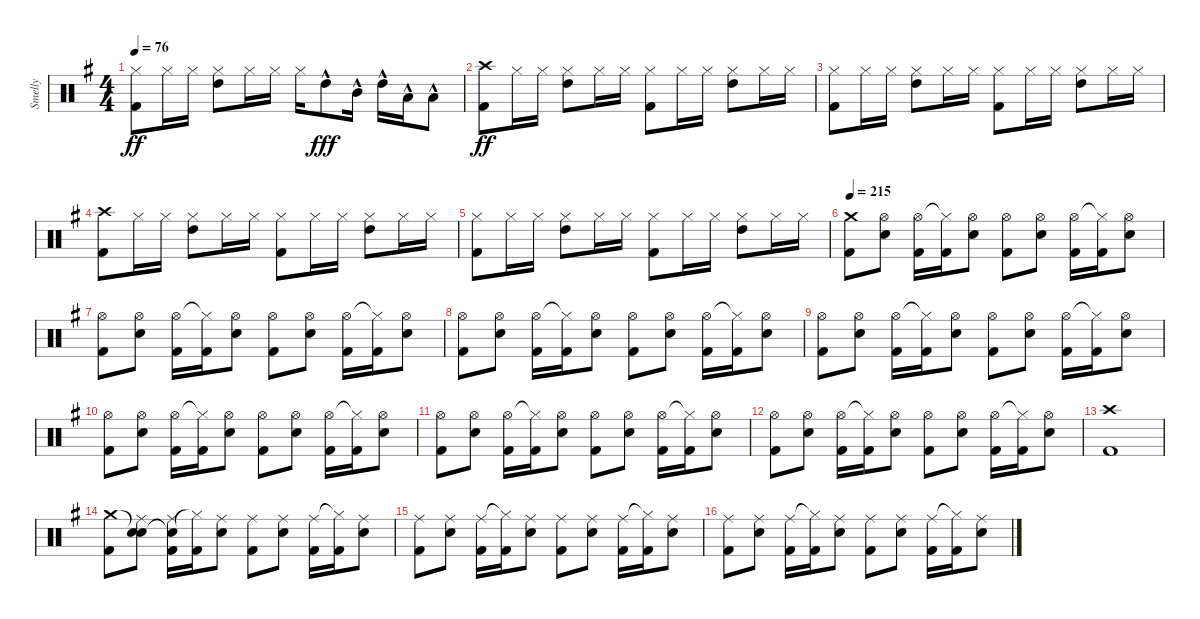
\track ("Smelly" "Smelly") {instrument percussion}
\staff {score}
\articulation defaults
\ts (4 4)
\tempo 76
\clef neutral
\ks eminor
("Hi-Hat (closed)" "Kick (hit) 2").8{dy ff} "Hi-Hat (closed)".16 "Hi-Hat (closed)".16 ("Hi-Hat (closed)" "High Tom (hit)").8 "Hi-Hat (closed)".16 "Hi-Hat (closed)".16 "Hi-Hat (closed)".16 "High Tom (hit)"{hac}.8{dy fff} "Mid Tom (hit)"{hac}.16 "High Tom (hit)"{hac}.16 "Low Tom (hit)"{hac}.16 "Low Floor Tom (hit)"{hac}.8 |
("Crash high (hit)" "Kick (hit) 2").8{dy ff} "Hi-Hat (closed)".16 "Hi-Hat (closed)".16 ("Hi-Hat (closed)" "High Tom (hit)").8 "Hi-Hat (closed)".16 "Hi-Hat (closed)".16 ("Hi-Hat (closed)" "Kick (hit) 2").8 "Hi-Hat (closed)".16 "Hi-Hat (closed)".16 ("Hi-Hat (closed)" "High Tom (hit)").8 "Hi-Hat (closed)".16 "Hi-Hat (closed)".16 |
("Hi-Hat (closed)" "Kick (hit) 2").8 "Hi-Hat (closed)".16 "Hi-Hat (closed)".16 ("Hi-Hat (closed)" "High Tom (hit)").8 "Hi-Hat (closed)".16 "Hi-Hat (closed)".16 ("Hi-Hat (closed)" "Kick (hit) 2").8 "Hi-Hat (closed)".16 "Hi-Hat (closed)".16 ("Hi-Hat (closed)" "High Tom (hit)").8 "Hi-Hat (closed)".16 "Hi-Hat (closed)".16 |
("Crash high (hit)" "Kick (hit) 2").8 "Hi-Hat (closed)".16 "Hi-Hat (closed)".16 ("Hi-Hat (closed)" "High Tom (hit)").8 "Hi-Hat (closed)".16 "Hi-Hat (closed)".16 ("Hi-Hat (closed)" "Kick (hit) 2").8 "Hi-Hat (closed)".16 "Hi-Hat (closed)".16 ("Hi-Hat (closed)" "High Tom (hit)").8 "Hi-Hat (closed)".16 "Hi-Hat (closed)".16 |
("Hi-Hat (closed)" "Kick (hit) 2").8 "Hi-Hat (closed)".16 "Hi-Hat (closed)".16 ("Hi-Hat (closed)" "High Tom (hit)").8 "Hi-Hat (closed)".16 "Hi-Hat (closed)".16 ("Hi-Hat (closed)" "Kick (hit) 2").8 "Hi-Hat (closed)".16 "Hi-Hat (closed)".16 ("Hi-Hat (closed)" "High Tom (hit)").8 "Hi-Hat (closed)".16 "Hi-Hat (closed)".16 |
\tempo 215
("Crash medium (hit)" "Kick (hit) 2").8 ("Hi-Hat (open)" "Electric Snare (hit)").8 ("Hi-Hat (open)" "Kick (hit) 2").16 ("Hi-Hat (closed)"{t} "Kick (hit) 2").16 ("Hi-Hat (open)" "Electric Snare (hit)").8 ("Hi-Hat (open)" "Kick (hit) 2").8 ("Hi-Hat (open)" "Electric Snare (hit)").8 ("Hi-Hat (open)" "Kick (hit) 2").16 ("Hi-Hat (closed)"{t} "Kick (hit) 2").16 ("Hi-Hat (open)" "Electric Snare (hit)").8 |
("Hi-Hat (open)" "Kick (hit) 2").8 ("Hi-Hat (open)" "Electric Snare (hit)").8 ("Hi-Hat (open)" "Kick (hit) 2").16 ("Hi-Hat (closed)"{t} "Kick (hit) 2").16 ("Hi-Hat (open)" "Electric Snare (hit)").8 ("Hi-Hat (open)" "Kick (hit) 2").8 ("Hi-Hat (open)" "Electric Snare (hit)").8 ("Hi-Hat (open)" "Kick (hit) 2").16 ("Hi-Hat (closed)"{t} "Kick (hit) 2").16 ("Hi-Hat (open)" "Electric Snare (hit)").8 |
("Hi-Hat (open)" "Kick (hit) 2").8 ("Hi-Hat (open)" "Electric Snare (hit)").8 ("Hi-Hat (open)" "Kick (hit) 2").16 ("Hi-Hat (closed)"{t} "Kick (hit) 2").16 ("Hi-Hat (open)" "Electric Snare (hit)").8 ("Hi-Hat (open)" "Kick (hit) 2").8 ("Hi-Hat (open)" "Electric Snare (hit)").8 ("Hi-Hat (open)" "Kick (hit) 2").16 ("Hi-Hat (closed)"{t} "Kick (hit) 2").16 ("Hi-Hat (open)" "Electric Snare (hit)").8 |
("Hi-Hat (open)" "Kick (hit) 2").8 ("Hi-Hat (open)" "Electric Snare (hit)").8 ("Hi-Hat (open)" "Kick (hit) 2").16 ("Hi-Hat (closed)"{t} "Kick (hit) 2").16 ("Hi-Hat (open)" "Electric Snare (hit)").8 ("Hi-Hat (open)" "Kick (hit) 2").8 ("Hi-Hat (open)" "Electric Snare (hit)").8 ("Hi-Hat (open)" "Kick (hit) 2").16 ("Hi-Hat (closed)"{t} "Kick (hit) 2").16 ("Hi-Hat (open)" "Electric Snare (hit)").8 |
("Hi-Hat (open)" "Kick (hit) 2").8 ("Hi-Hat (open)" "Electric Snare (hit)").8 ("Hi-Hat (open)" "Kick (hit) 2").16 ("Hi-Hat (closed)"{t} "Kick (hit) 2").16 ("Hi-Hat (open)" "Electric Snare (hit)").8 ("Hi-Hat (open)" "Kick (hit) 2").8 ("Hi-Hat (open)" "Electric Snare (hit)").8 ("Hi-Hat (open)" "Kick (hit) 2").16 ("Hi-Hat (closed)"{t} "Kick (hit) 2").16 ("Hi-Hat (open)" "Electric Snare (hit)").8 |
("Hi-Hat (open)" "Kick (hit) 2").8 ("Hi-Hat (open)" "Electric Snare (hit)").8 ("Hi-Hat (open)" "Kick (hit) 2").16 ("Hi-Hat (closed)"{t} "Kick (hit) 2").16 ("Hi-Hat (open)" "Electric Snare (hit)").8 ("Hi-Hat (open)" "Kick (hit) 2").8 ("Hi-Hat (open)" "Electric Snare (hit)").8 ("Hi-Hat (open)" "Kick (hit) 2").16 ("Hi-Hat (closed)"{t} "Kick (hit) 2").16 ("Hi-Hat (open)" "Electric Snare (hit)").8 |
("Hi-Hat (open)" "Kick (hit) 2").8 ("Hi-Hat (open)" "Electric Snare (hit)").8 ("Hi-Hat (open)" "Kick (hit) 2").16 ("Hi-Hat (closed)"{t} "Kick (hit) 2").16 ("Hi-Hat (open)" "Electric Snare (hit)").8 ("Hi-Hat (open)" "Kick (hit) 2").8 ("Hi-Hat (open)" "Electric Snare (hit)").8 ("Hi-Hat (open)" "Kick (hit) 2").16 ("Hi-Hat (closed)"{t} "Kick (hit) 2").16 ("Hi-Hat (open)" "Electric Snare (hit)").8 |
("Crash high (hit)" "Kick (hit) 2").1 |
("Crash medium (hit)" "Kick (hit) 2").8 ("Snare (hit)"{t} "Ride (middle)" "Electric Snare (hit)").8 ("Snare (hit)"{t} "Ride (middle)" "Kick (hit) 2").16 ("Hi-Hat (closed)"{t} "Kick (hit) 2").16 ("Ride (middle)" "Electric Snare (hit)").8 ("Ride (middle)" "Kick (hit) 2").8 ("Ride (middle)" "Electric Snare (hit)").8 ("Ride (middle)" "Kick (hit) 2").16 ("Hi-Hat (closed)"{t} "Kick (hit) 2").16 ("Ride (middle)" "Electric Snare (hit)").8 |
("Ride (middle)" "Kick (hit) 2").8 ("Ride (middle)" "Electric Snare (hit)").8 ("Ride (middle)" "Kick (hit) 2").16 ("Hi-Hat (closed)"{t} "Kick (hit) 2").16 ("Ride (middle)" "Electric Snare (hit)").8 ("Ride (middle)" "Kick (hit) 2").8 ("Ride (middle)" "Electric Snare (hit)").8 ("Ride (middle)" "Kick (hit) 2").16 ("Hi-Hat (closed)"{t} "Kick (hit) 2").16 ("Ride (middle)" "Electric Snare (hit)").8 |
("Ride (middle)" "Kick (hit) 2").8 ("Ride (middle)" "Electric Snare (hit)").8 ("Ride (middle)" "Kick (hit) 2").16 ("Hi-Hat (closed)"{t} "Kick (hit) 2").16 ("Ride (middle)" "Electric Snare (hit)").8 ("Ride (middle)" "Kick (hit) 2").8 ("Ride (middle)" "Electric Snare (hit)").8 ("Ride (middle)" "Kick (hit) 2").16 ("Hi-Hat (closed)"{t} "Kick (hit) 2").16 ("Ride (middle)" "Electric Snare (hit)").8
